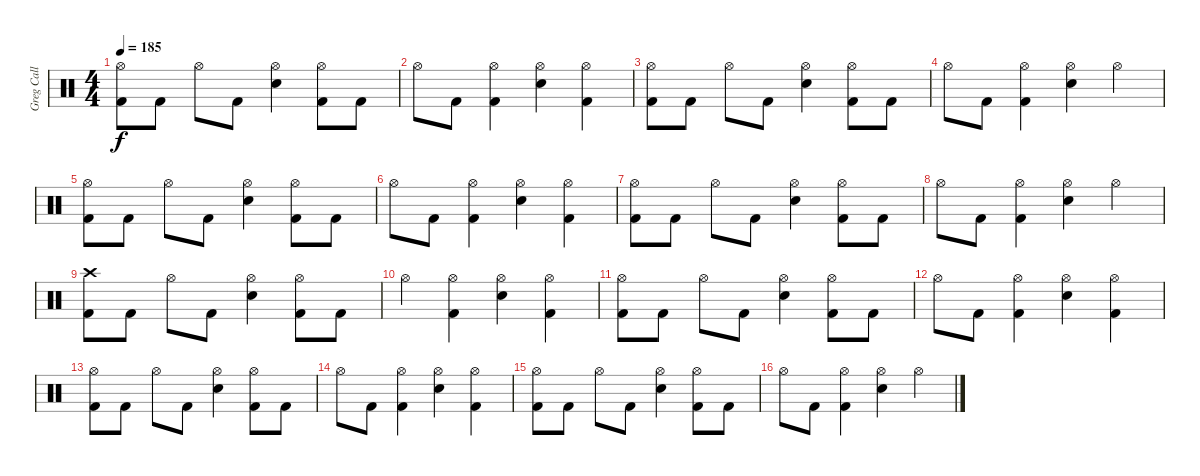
\track ("Greg Call (Drums)" "Greg Call ") {instrument percussion}
\staff {score}
\articulation defaults
\ts (4 4)
\tempo 185
\clef neutral
\ks c
("Hi-Hat (open)" "Kick (hit) 2").8{dy f} "Kick (hit) 2".8 "Hi-Hat (open)".8 "Kick (hit) 2".8 ("Hi-Hat (open)" "Snare (hit) 2").4 ("Hi-Hat (open)" "Kick (hit) 2").8 "Kick (hit) 2".8 |
"Hi-Hat (open)".8 "Kick (hit) 2".8 ("Hi-Hat (open)" "Kick (hit) 2").4 ("Hi-Hat (open)" "Snare (hit) 2").4 ("Hi-Hat (open)" "Kick (hit) 2").4 |
("Hi-Hat (open)" "Kick (hit) 2").8 "Kick (hit) 2".8 "Hi-Hat (open)".8 "Kick (hit) 2".8 ("Hi-Hat (open)" "Snare (hit) 2").4 ("Hi-Hat (open)" "Kick (hit) 2").8 "Kick (hit) 2".8 |
"Hi-Hat (open)".8 "Kick (hit) 2".8 ("Hi-Hat (open)" "Kick (hit) 2").4 ("Hi-Hat (open)" "Snare (hit) 2").4 "Hi-Hat (open)".4 |
("Hi-Hat (open)" "Kick (hit) 2").8 "Kick (hit) 2".8 "Hi-Hat (open)".8 "Kick (hit) 2".8 ("Hi-Hat (open)" "Snare (hit) 2").4 ("Hi-Hat (open)" "Kick (hit) 2").8 "Kick (hit) 2".8 |
"Hi-Hat (open)".8 "Kick (hit) 2".8 ("Hi-Hat (open)" "Kick (hit) 2").4 ("Hi-Hat (open)" "Snare (hit) 2").4 ("Hi-Hat (open)" "Kick (hit) 2").4 |
("Hi-Hat (open)" "Kick (hit) 2").8 "Kick (hit) 2".8 "Hi-Hat (open)".8 "Kick (hit) 2".8 ("Hi-Hat (open)" "Snare (hit) 2").4 ("Hi-Hat (open)" "Kick (hit) 2").8 "Kick (hit) 2".8 |
"Hi-Hat (open)".8 "Kick (hit) 2".8 ("Hi-Hat (open)" "Kick (hit) 2").4 ("Hi-Hat (open)" "Snare (hit) 2").4 "Hi-Hat (open)".4 |
("Crash high (hit)" "Kick (hit) 2").8 "Kick (hit) 2".8 "Hi-Hat (open)".8 "Kick (hit) 2".8 ("Hi-Hat (open)" "Snare (hit) 2").4 ("Hi-Hat (open)" "Kick (hit) 2").8 "Kick (hit) 2".8 |
"Hi-Hat (open)".4 ("Hi-Hat (open)" "Kick (hit) 2").4 ("Hi-Hat (open)" "Snare (hit) 2").4 ("Hi-Hat (open)" "Kick (hit) 2").4 |
("Hi-Hat (open)" "Kick (hit) 2").8 "Kick (hit) 2".8 "Hi-Hat (open)".8 "Kick (hit) 2".8 ("Hi-Hat (open)" "Snare (hit) 2").4 ("Hi-Hat (open)" "Kick (hit) 2").8 "Kick (hit) 2".8 |
"Hi-Hat (open)".8 "Kick (hit) 2".8 ("Hi-Hat (open)" "Kick (hit) 2").4 ("Hi-Hat (open)" "Snare (hit) 2").4 ("Hi-Hat (open)" "Kick (hit) 2").4 |
("Hi-Hat (open)" "Kick (hit) 2").8 "Kick (hit) 2".8 "Hi-Hat (open)".8 "Kick (hit) 2".8 ("Hi-Hat (open)" "Snare (hit) 2").4 ("Hi-Hat (open)" "Kick (hit) 2").8 "Kick (hit) 2".8 |
"Hi-Hat (open)".8 "Kick (hit) 2".8 ("Hi-Hat (open)" "Kick (hit) 2").4 ("Hi-Hat (open)" "Snare (hit) 2").4 ("Hi-Hat (open)" "Kick (hit) 2").4 |
("Hi-Hat (open)" "Kick (hit) 2").8 "Kick (hit) 2".8 "Hi-Hat (open)".8 "Kick (hit) 2".8 ("Hi-Hat (open)" "Snare (hit) 2").4 ("Hi-Hat (open)" "Kick (hit) 2").8 "Kick (hit) 2".8 |
"Hi-Hat (open)".8 "Kick (hit) 2".8 ("Hi-Hat (open)" "Kick (hit) 2").4 ("Hi-Hat (open)" "Snare (hit) 2").4 "Hi-Hat (open)".4
